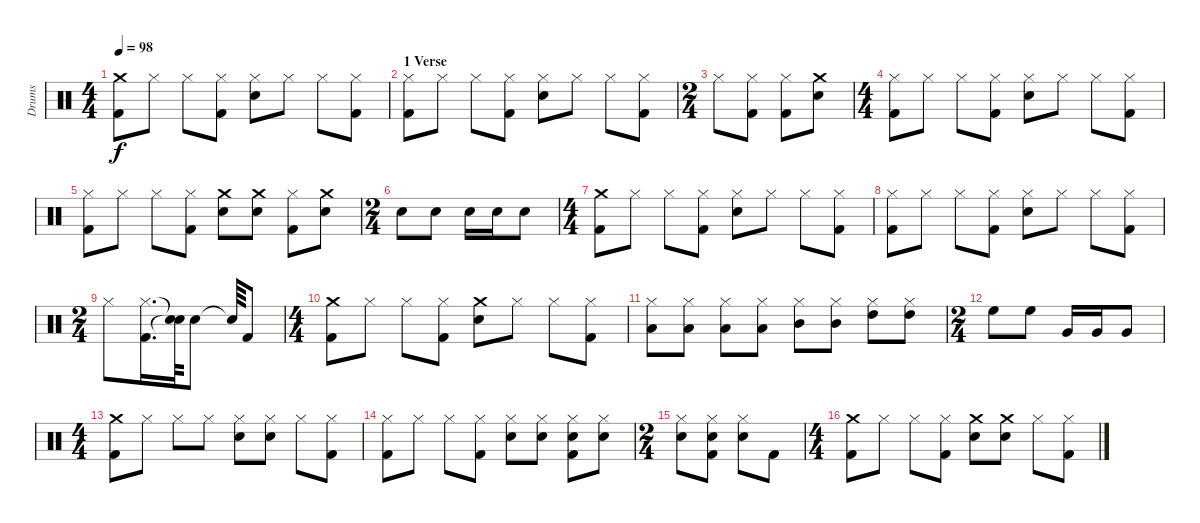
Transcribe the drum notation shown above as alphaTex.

\track ("Drums" "Drums") {instrument percussion}
\staff {score}
\articulation defaults
\ts (4 4)
\tempo 98
\clef neutral
\ks c
("Kick (hit) 2" "Crash medium (hit)").8{dy f} "Hi-Hat (closed)".8 "Hi-Hat (closed)".8 ("Kick (hit) 2" "Hi-Hat (closed)").8 ("Snare (hit) 2" "Hi-Hat (closed)").8 "Hi-Hat (closed)".8 "Hi-Hat (closed)".8 ("Kick (hit) 2" "Hi-Hat (closed)").8 |
\section ("" "1 Verse")
("Kick (hit) 2" "Hi-Hat (closed)").8 "Hi-Hat (closed)".8 "Hi-Hat (closed)".8 ("Kick (hit) 2" "Hi-Hat (closed)").8 ("Hi-Hat (closed)" "Snare (hit) 2").8 "Hi-Hat (closed)".8 "Hi-Hat (closed)".8 ("Kick (hit) 2" "Hi-Hat (closed)").8 |
\ts (2 4)
"Hi-Hat (closed)".8 ("Hi-Hat (closed)" "Kick (hit) 2").8 ("Hi-Hat (closed)" "Kick (hit) 2").8 ("Crash medium (hit)" "Snare (hit) 2").8 |
\ts (4 4)
("Kick (hit) 2" "Hi-Hat (closed)").8 "Hi-Hat (closed)".8 "Hi-Hat (closed)".8 ("Kick (hit) 2" "Hi-Hat (closed)").8 ("Hi-Hat (closed)" "Snare (hit) 2").8 "Hi-Hat (closed)".8 "Hi-Hat (closed)".8 ("Kick (hit) 2" "Hi-Hat (closed)").8 |
("Hi-Hat (closed)" "Kick (hit) 2").8 "Hi-Hat (closed)".8 "Hi-Hat (closed)".8 ("Hi-Hat (closed)" "Kick (hit) 2").8 ("Crash medium (hit)" "Snare (hit) 2").8 ("Crash medium (hit)" "Snare (hit) 2").8 ("Hi-Hat (closed)" "Kick (hit) 2").8 ("Crash medium (hit)" "Snare (hit) 2").8 |
\ts (2 4)
"Snare (hit) 2".8 "Snare (hit) 2".8 "Snare (hit) 2".16 "Snare (hit) 2".16 "Snare (hit) 2".8 |
\ts (4 4)
("Kick (hit) 2" "Crash medium (hit)").8 "Hi-Hat (closed)".8 "Hi-Hat (closed)".8 ("Kick (hit) 2" "Hi-Hat (closed)").8 ("Snare (hit) 2" "Hi-Hat (closed)").8 "Hi-Hat (closed)".8 "Hi-Hat (closed)".8 ("Kick (hit) 2" "Hi-Hat (closed)").8 |
("Kick (hit) 2" "Hi-Hat (closed)").8 "Hi-Hat (closed)".8 "Hi-Hat (closed)".8 ("Kick (hit) 2" "Hi-Hat (closed)").8 ("Hi-Hat (closed)" "Snare (hit) 2").8 "Hi-Hat (closed)".8 "Hi-Hat (closed)".8 ("Kick (hit) 2" "Hi-Hat (closed)").8 |
\ts (2 4)
"Hi-Hat (closed)".8 ("Kick (hit) 2" "Hi-Hat (closed)").16{d} ("Snare (hit)"{t} "Snare (hit)"{t}).64 "Snare (hit) 2".8 "Snare (hit)"{t}.64 "Kick (hit) 2".8 |
\ts (4 4)
("Crash medium (hit)" "Kick (hit) 2").8 "Hi-Hat (closed)".8 "Hi-Hat (closed)".8 ("Kick (hit) 2" "Hi-Hat (closed)").8 ("Crash medium (hit)" "Snare (hit) 2").8 "Hi-Hat (closed)".8 "Hi-Hat (closed)".8 ("Kick (hit) 2" "Hi-Hat (closed)").8 |
("Low Tom (hit)" "Hi-Hat (closed)").8 ("Low Tom (hit)" "Hi-Hat (closed)").8 ("Low Tom (hit)" "Hi-Hat (closed)").8 ("Low Tom (hit)" "Hi-Hat (closed)").8 ("Mid Tom (hit)" "Hi-Hat (closed)").8 ("Mid Tom (hit)" "Hi-Hat (closed)").8 ("High Tom (hit)" "Hi-Hat (closed)").8 ("High Tom (hit)" "Hi-Hat (closed)").8 |
\ts (2 4)
"High Floor Tom (hit)".8 "High Floor Tom (hit)".8 "Very Low Tom (hit)".16 "Very Low Tom (hit)".16 "Very Low Tom (hit)".8 |
\ts (4 4)
("Crash medium (hit)" "Kick (hit) 2").8 "Hi-Hat (closed)".8 "Hi-Hat (closed)".8 "Hi-Hat (closed)".8 ("Hi-Hat (closed)" "Snare (hit) 2").8 ("Snare (hit) 2" "Hi-Hat (closed)").8 "Hi-Hat (closed)".8 ("Kick (hit) 2" "Hi-Hat (closed)").8 |
("Hi-Hat (closed)" "Kick (hit) 2").8 "Hi-Hat (closed)".8 "Hi-Hat (closed)".8 ("Hi-Hat (closed)" "Kick (hit) 2").8 ("Snare (hit) 2" "Hi-Hat (closed)").8 ("Snare (hit) 2" "Hi-Hat (closed)").8 ("Snare (hit) 2" "Hi-Hat (closed)" "Kick (hit) 2").8 ("Snare (hit) 2" "Hi-Hat (closed)").8 |
\ts (2 4)
("Snare (hit) 2" "Hi-Hat (closed)").8 ("Kick (hit) 2" "Snare (hit) 2" "Hi-Hat (closed)").8 ("Hi-Hat (closed)" "Snare (hit) 2").8 "Kick (hit) 2".8 |
\ts (4 4)
("Crash medium (hit)" "Kick (hit) 2").8 "Hi-Hat (closed)".8 "Hi-Hat (closed)".8 ("Kick (hit) 2" "Hi-Hat (closed)").8 ("Crash medium (hit)" "Snare (hit) 2").8 ("Crash medium (hit)" "Snare (hit) 2").8 "Hi-Hat (closed)".8 ("Kick (hit) 2" "Hi-Hat (closed)").8
